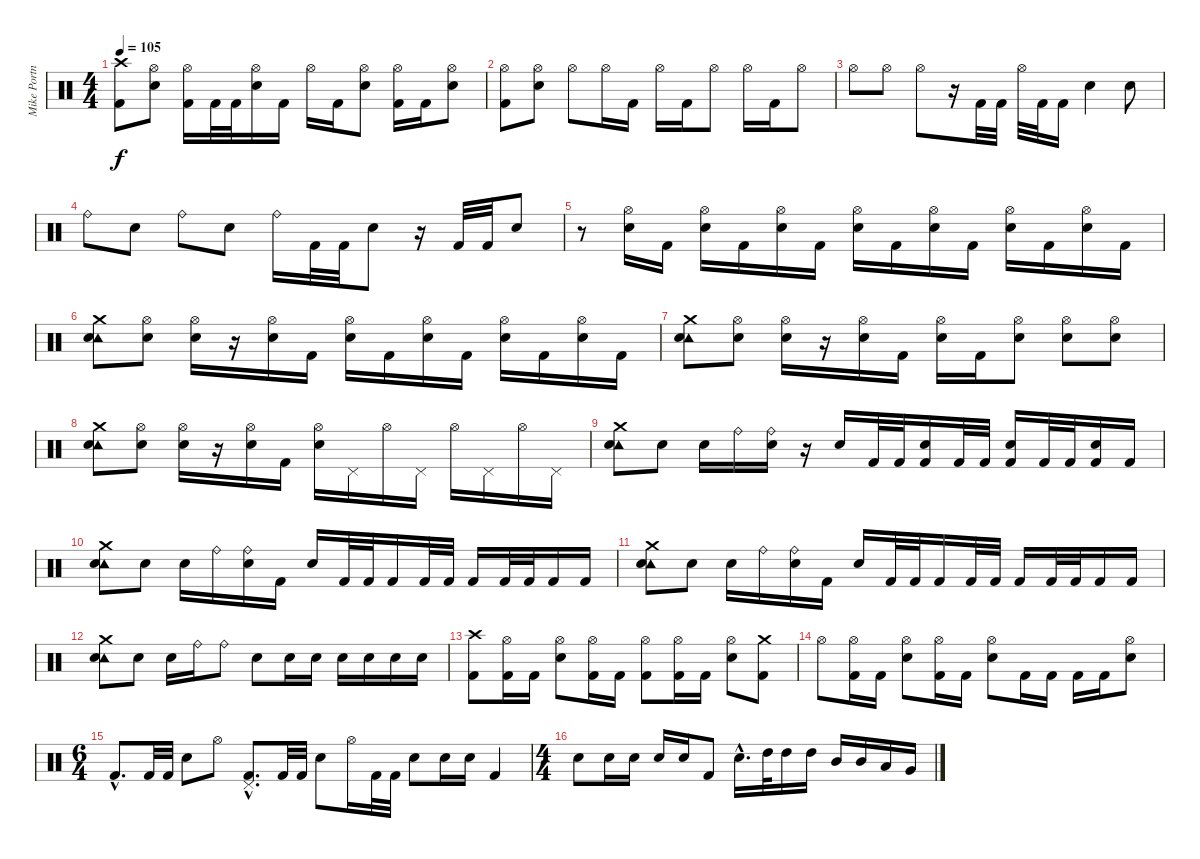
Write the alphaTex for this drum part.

\track ("Mike Portnoy" "Mike Portn") {instrument percussion}
\staff {score}
\articulation defaults
\ts (4 4)
\tempo 105
\clef neutral
\ks c
("Crash high (hit)" "Kick (hit) 2").8{dy f} ("Hi-Hat (open)" "Electric Snare (hit)").8 ("Hi-Hat (open)" "Kick (hit) 2").16 "Kick (hit) 2".32 "Kick (hit) 2".32 ("Hi-Hat (open)" "Electric Snare (hit)").16 "Kick (hit) 2".16 "Hi-Hat (open)".16 "Kick (hit) 2".16 ("Hi-Hat (open)" "Electric Snare (hit)").8 ("Hi-Hat (open)" "Kick (hit) 2").16 "Kick (hit) 2".16 ("Hi-Hat (open)" "Electric Snare (hit)").8 |
("Hi-Hat (open)" "Kick (hit) 2").8 ("Hi-Hat (open)" "Electric Snare (hit)").8 "Hi-Hat (open)".8 "Hi-Hat (open)".16 "Kick (hit) 2".16 "Hi-Hat (open)".16 "Kick (hit) 2".16 "Hi-Hat (open)".8 "Hi-Hat (open)".16 "Kick (hit) 2".16 "Hi-Hat (open)".8 |
"Hi-Hat (open)".8 "Hi-Hat (open)".8 "Hi-Hat (open)".8 r.16 "Kick (hit) 2".32 "Kick (hit) 2".32 "Hi-Hat (open)".32 "Kick (hit) 2".32 "Kick (hit) 2".16 "Electric Snare (hit)".4 "Electric Snare (hit)".8 |
"Ride (bell)".8 "Electric Snare (hit)".8 "Ride (bell)".8 "Electric Snare (hit)".8 "Ride (bell)".16 "Kick (hit) 2".32 "Kick (hit) 2".32 "Electric Snare (hit)".8 r.16 "Kick (hit) 2".32 "Kick (hit) 2".32 "Electric Snare (hit)".8 |
r.8 ("Hi-Hat (open)" "Electric Snare (hit)").16 "Kick (hit) 2".16 ("Hi-Hat (open)" "Electric Snare (hit)").16 "Kick (hit) 2".16 ("Hi-Hat (open)" "Electric Snare (hit)").16 "Kick (hit) 2".16 ("Hi-Hat (open)" "Electric Snare (hit)").16 "Kick (hit) 2".16 ("Hi-Hat (open)" "Electric Snare (hit)").16 "Kick (hit) 2".16 ("Hi-Hat (open)" "Electric Snare (hit)").16 "Kick (hit) 2".16 ("Hi-Hat (open)" "Electric Snare (hit)").16 "Kick (hit) 2".16 |
("Tambourine (hit)" "Crash medium (hit)" "Electric Snare (hit)").8 ("Hi-Hat (open)" "Electric Snare (hit)").8 ("Hi-Hat (open)" "Electric Snare (hit)").16 r.16 ("Hi-Hat (open)" "Electric Snare (hit)").16 "Kick (hit) 2".16 ("Hi-Hat (open)" "Electric Snare (hit)").16 "Kick (hit) 2".16 ("Hi-Hat (open)" "Electric Snare (hit)").16 "Kick (hit) 2".16 ("Hi-Hat (open)" "Electric Snare (hit)").16 "Kick (hit) 2".16 ("Hi-Hat (open)" "Electric Snare (hit)").16 "Kick (hit) 2".16 |
("Crash medium (hit)" "Tambourine (hit)" "Electric Snare (hit)").8 ("Hi-Hat (open)" "Electric Snare (hit)").8 ("Hi-Hat (open)" "Electric Snare (hit)").16 r.16 ("Hi-Hat (open)" "Electric Snare (hit)").16 "Kick (hit) 2".16 ("Hi-Hat (open)" "Electric Snare (hit)").16 "Kick (hit) 2".16 ("Hi-Hat (open)" "Electric Snare (hit)").8 ("Hi-Hat (open)" "Electric Snare (hit)").8 ("Hi-Hat (open)" "Electric Snare (hit)").8 |
("Crash medium (hit)" "Tambourine (hit)" "Electric Snare (hit)").8 ("Hi-Hat (open)" "Electric Snare (hit)").8 ("Hi-Hat (open)" "Electric Snare (hit)").16 r.16 ("Hi-Hat (open)" "Electric Snare (hit)").16 "Kick (hit) 2".16 ("Hi-Hat (open)" "Electric Snare (hit)").16 "Pedal Hi-Hat (hit)".16 "Hi-Hat (open)".16 "Pedal Hi-Hat (hit)".16 "Hi-Hat (open)".16 "Pedal Hi-Hat (hit)".16 "Hi-Hat (open)".16 "Pedal Hi-Hat (hit)".16 |
("Crash medium (hit)" "Tambourine (hit)" "Electric Snare (hit)").8 "Electric Snare (hit)".8 "Electric Snare (hit)".16 "Ride (bell)".16 ("Ride (bell)" "Electric Snare (hit)").16 r.16 "Electric Snare (hit)".16 "Kick (hit) 2".32 "Kick (hit) 2".32 ("Electric Snare (hit)" "Kick (hit) 2").16 "Kick (hit) 2".32 "Kick (hit) 2".32 ("Electric Snare (hit)" "Kick (hit) 2").16 "Kick (hit) 2".32 "Kick (hit) 2".32 ("Electric Snare (hit)" "Kick (hit) 2").16 "Kick (hit) 2".16 |
("Crash medium (hit)" "Tambourine (hit)" "Electric Snare (hit)").8 "Electric Snare (hit)".8 "Electric Snare (hit)".16 "Ride (bell)".16 ("Ride (bell)" "Electric Snare (hit)").16 "Kick (hit) 2".16 "Electric Snare (hit)".16 "Kick (hit) 2".32 "Kick (hit) 2".32 "Kick (hit) 2".16 "Kick (hit) 2".32 "Kick (hit) 2".32 "Kick (hit) 2".16 "Kick (hit) 2".32 "Kick (hit) 2".32 "Kick (hit) 2".16 "Kick (hit) 2".16 |
("Crash medium (hit)" "Tambourine (hit)" "Electric Snare (hit)").8 "Electric Snare (hit)".8 "Electric Snare (hit)".16 "Ride (bell)".16 ("Ride (bell)" "Electric Snare (hit)").16 "Kick (hit) 2".16 "Electric Snare (hit)".16 "Kick (hit) 2".32 "Kick (hit) 2".32 "Kick (hit) 2".16 "Kick (hit) 2".32 "Kick (hit) 2".32 "Kick (hit) 2".16 "Kick (hit) 2".32 "Kick (hit) 2".32 "Kick (hit) 2".16 "Kick (hit) 2".16 |
("Crash medium (hit)" "Tambourine (hit)" "Electric Snare (hit)").8 "Electric Snare (hit)".8 "Electric Snare (hit)".16 "Ride (bell)".16 "Ride (bell)".8 "Electric Snare (hit)".8 "Electric Snare (hit)".16 "Electric Snare (hit)".16 "Electric Snare (hit)".16 "Electric Snare (hit)".16 "Electric Snare (hit)".16 "Electric Snare (hit)".16 |
("Crash high (hit)" "Kick (hit) 2").8 ("Hi-Hat (open)" "Kick (hit) 2").16 "Kick (hit) 2".16 ("Hi-Hat (open)" "Electric Snare (hit)").8 ("Hi-Hat (open)" "Kick (hit) 2").16 "Kick (hit) 2".16 ("Hi-Hat (open)" "Kick (hit) 2").8 ("Hi-Hat (open)" "Kick (hit) 2").16 "Kick (hit) 2".16 ("Hi-Hat (open)" "Electric Snare (hit)").8 ("Crash medium (hit)" "Kick (hit) 2").8 |
"Hi-Hat (open)".8 ("Hi-Hat (open)" "Kick (hit) 2").16 "Kick (hit) 2".16 ("Hi-Hat (open)" "Electric Snare (hit)").8 ("Hi-Hat (open)" "Kick (hit) 2").16 "Kick (hit) 2".16 ("Hi-Hat (open)" "Electric Snare (hit)").8 "Kick (hit) 2".16 "Kick (hit) 2".16 "Kick (hit) 2".16 "Kick (hit) 2".16 ("Hi-Hat (open)" "Electric Snare (hit)").8 |
\ts (6 4)
"Kick (hit) 2"{hac}.8{d} "Kick (hit) 2".32 "Kick (hit) 2".32 "Electric Snare (hit)".8 "Hi-Hat (open)".8 ("Pedal Hi-Hat (hit)"{hac} "Kick (hit) 2"{hac}).8{d} "Kick (hit) 2".32 "Kick (hit) 2".32 "Electric Snare (hit)".8 "Hi-Hat (open)".16 "Kick (hit) 2".32 "Kick (hit) 2".32 "Electric Snare (hit)".8 "Electric Snare (hit)".16 "Electric Snare (hit)".16 "Kick (hit) 2".4 |
\ts (4 4)
"Electric Snare (hit)".8 "Electric Snare (hit)".16 "Electric Snare (hit)".16 "Electric Snare (hit)".16 "Electric Snare (hit)".16 "Kick (hit) 2".8 "Electric Snare (hit)"{hac}.16{d} "High Tom (hit)".32 "High Tom (hit)".16 "High Tom (hit)".16 "Mid Tom (hit)".16 "Mid Tom (hit)".16 "Low Tom (hit)".16 "Very Low Tom (hit)".16
